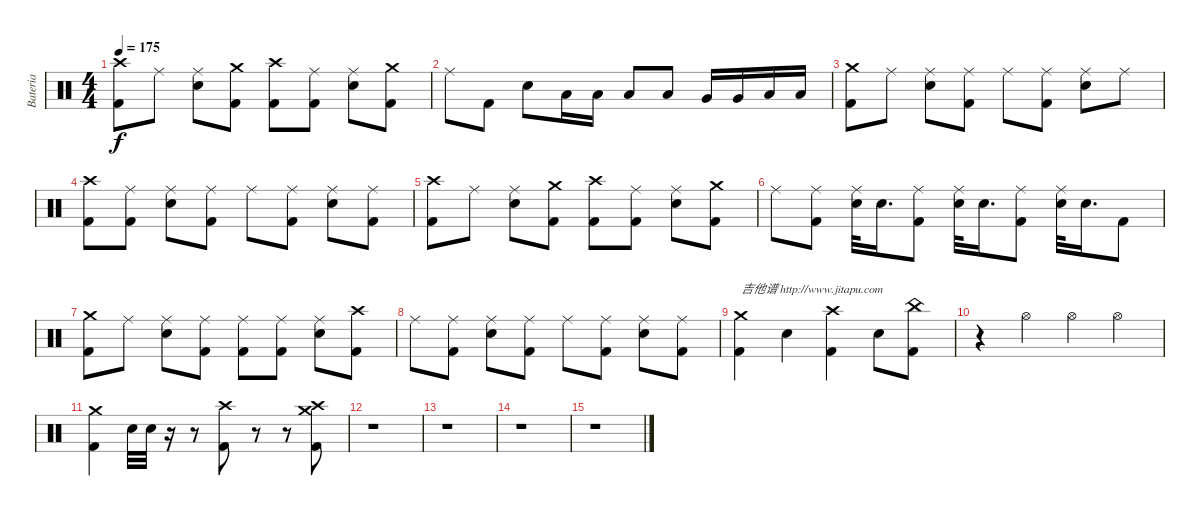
\track ("Bateria" "Bateria") {instrument percussion}
\staff {score}
\articulation defaults
\ts (4 4)
\tempo 175
\clef neutral
\ks c
("Kick (hit) 2" "Crash high (hit)").8{dy f} "Ride (middle)".8 ("Snare (hit) 2" "Ride (middle)").8 ("Kick (hit) 2" "Crash medium (hit)").8 ("Kick (hit) 2" "Crash high (hit)").8 ("Kick (hit) 2" "Ride (middle)").8 ("Snare (hit) 2" "Ride (middle)").8 ("Kick (hit) 2" "Crash medium (hit)").8 |
"Ride (middle)".8 "Kick (hit) 2".8 "Snare (hit) 2".8 "Low Tom (hit)".16 "Low Tom (hit)".16 "Low Tom (hit)".8 "Low Tom (hit)".8 "Very Low Tom (hit)".16 "Very Low Tom (hit)".16 "Low Floor Tom (hit)".16 "Low Floor Tom (hit)".16 |
("Kick (hit) 2" "Crash medium (hit)").8 "Ride (middle)".8 ("Snare (hit) 2" "Ride (middle)").8 ("Kick (hit) 2" "Ride (middle)").8 "Ride (middle)".8 ("Kick (hit) 2" "Ride (middle)").8 ("Snare (hit) 2" "Ride (middle)").8 "Ride (middle)".8 |
("Kick (hit) 2" "Crash high (hit)").8 ("Kick (hit) 2" "Ride (middle)").8 ("Snare (hit) 2" "Ride (middle)").8 ("Kick (hit) 2" "Ride (middle)").8 "Ride (middle)".8 ("Kick (hit) 2" "Ride (middle)").8 ("Snare (hit) 2" "Ride (middle)").8 ("Kick (hit) 2" "Ride (middle)").8 |
("Kick (hit) 2" "Crash high (hit)").8 "Ride (middle)".8 ("Snare (hit) 2" "Ride (middle)").8 ("Kick (hit) 2" "Crash medium (hit)").8 ("Kick (hit) 2" "Crash high (hit)").8 ("Kick (hit) 2" "Ride (middle)").8 ("Snare (hit) 2" "Ride (middle)").8 ("Kick (hit) 2" "Crash medium (hit)").8 |
"Ride (middle)".8 ("Kick (hit) 2" "Ride (middle)").8 ("Snare (hit) 2" "Ride (middle)").32 "Snare (hit) 2".16{d} ("Kick (hit) 2" "Ride (middle)").8 ("Snare (hit) 2" "Ride (middle)").32 "Snare (hit) 2".16{d} ("Kick (hit) 2" "Ride (middle)").8 ("Snare (hit) 2" "Ride (middle)").32 "Snare (hit) 2".16{d} "Kick (hit) 2".8 |
("Kick (hit) 2" "Crash medium (hit)").8 "Ride (middle)".8 ("Snare (hit) 2" "Ride (middle)").8 ("Kick (hit) 2" "Ride (middle)").8 ("Kick (hit) 2" "Ride (middle)").8 ("Kick (hit) 2" "Ride (middle)").8 ("Snare (hit) 2" "Ride (middle)").8 ("Kick (hit) 2" "Crash high (hit)").8 |
"Ride (middle)".8 ("Kick (hit) 2" "Ride (middle)").8 ("Snare (hit) 2" "Ride (middle)").8 ("Kick (hit) 2" "Ride (middle)").8 "Ride (middle)".8 ("Kick (hit) 2" "Ride (middle)").8 ("Snare (hit) 2" "Ride (middle)").8 ("Kick (hit) 2" "Ride (middle)").8 |
("Kick (hit) 2" "Crash medium (hit)").4{txt "吉他谱 http://www.jitapu.com"} "Snare (hit) 2".4 ("Kick (hit) 2" "Crash high (hit)").4 "Snare (hit) 2".8 ("Kick (hit) 2" "China (hit)").8 |
r.4 "Hi-Hat (open)".4 "Hi-Hat (open)".4 "Hi-Hat (open)".4 |
("Kick (hit) 2" "Crash medium (hit)").4 "Snare (hit) 2".32 "Snare (hit) 2".32 r.16 r.8 ("Kick (hit) 2" "Crash high (hit)").8 r.8 r.8 ("Kick (hit) 2" "Crash high (hit)" "Crash medium (hit)").8 |
r.1 |
r.1 |
r.1 |
r.1
